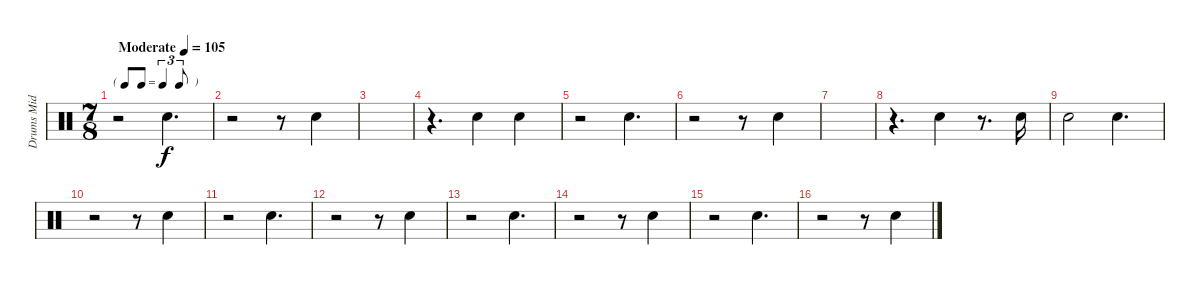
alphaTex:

\track ("Drums Mid" "Drums Mid") {instrument percussion}
\staff {score}
\articulation defaults
\ts (7 8)
\tf triplet8th
\tempo (105 "Moderate")
\clef neutral
\ks c
r.2{dy f} "Snare (hit) 2".4{d} |
r.2 r.8 "Snare (hit) 2".4 |
|
r.4{d} "Electric Snare (hit)".4 "Electric Snare (hit)".4 |
r.2 "Snare (hit) 2".4{d} |
r.2 r.8 "Snare (hit) 2".4 |
|
r.4{d} "Electric Snare (hit)".4 r.8{d} "Snare (hit) 2".16 |
"Electric Snare (hit)".2 "Snare (hit) 2".4{d} |
r.2 r.8 "Snare (hit) 2".4 |
r.2 "Snare (hit) 2".4{d} |
r.2 r.8 "Snare (hit) 2".4 |
r.2 "Snare (hit) 2".4{d} |
r.2 r.8 "Snare (hit) 2".4 |
r.2 "Snare (hit) 2".4{d} |
r.2 r.8 "Snare (hit) 2".4
